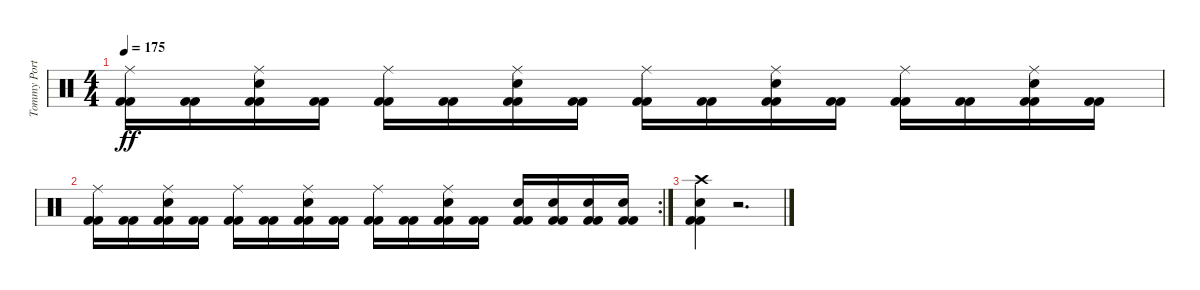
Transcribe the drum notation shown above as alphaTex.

\track ("Tommy Portimo" "Tommy Port") {instrument percussion}
\staff {score}
\articulation defaults
\ts (4 4)
\tempo 175
\clef neutral
\ks c
("Kick (hit) 2" "Kick (hit) 2" "Ride (middle)").16{dy ff} ("Kick (hit) 2" "Kick (hit) 2").16 ("Kick (hit) 2" "Kick (hit) 2" "Ride (middle)" "Electric Snare (hit)").16 ("Kick (hit) 2" "Kick (hit) 2").16 ("Kick (hit) 2" "Kick (hit) 2" "Ride (middle)").16 ("Kick (hit) 2" "Kick (hit) 2").16 ("Kick (hit) 2" "Kick (hit) 2" "Ride (middle)" "Electric Snare (hit)").16 ("Kick (hit) 2" "Kick (hit) 2").16 ("Kick (hit) 2" "Kick (hit) 2" "Ride (middle)").16 ("Kick (hit) 2" "Kick (hit) 2").16 ("Kick (hit) 2" "Kick (hit) 2" "Ride (middle)" "Electric Snare (hit)").16 ("Kick (hit) 2" "Kick (hit) 2").16 ("Kick (hit) 2" "Kick (hit) 2" "Ride (middle)").16 ("Kick (hit) 2" "Kick (hit) 2").16 ("Kick (hit) 2" "Kick (hit) 2" "Ride (middle)" "Electric Snare (hit)").16 ("Kick (hit) 2" "Kick (hit) 2").16 |
\rc 2
("Kick (hit) 2" "Kick (hit) 2" "Ride (middle)").16 ("Kick (hit) 2" "Kick (hit) 2").16 ("Kick (hit) 2" "Kick (hit) 2" "Ride (middle)" "Electric Snare (hit)").16 ("Kick (hit) 2" "Kick (hit) 2").16 ("Kick (hit) 2" "Kick (hit) 2" "Ride (middle)").16 ("Kick (hit) 2" "Kick (hit) 2").16 ("Kick (hit) 2" "Kick (hit) 2" "Ride (middle)" "Electric Snare (hit)").16 ("Kick (hit) 2" "Kick (hit) 2").16 ("Kick (hit) 2" "Kick (hit) 2" "Ride (middle)").16 ("Kick (hit) 2" "Kick (hit) 2").16 ("Kick (hit) 2" "Kick (hit) 2" "Ride (middle)" "Electric Snare (hit)").16 ("Kick (hit) 2" "Kick (hit) 2").16 ("Kick (hit) 2" "Kick (hit) 2" "Electric Snare (hit)").16 ("Kick (hit) 2" "Kick (hit) 2" "Electric Snare (hit)").16 ("Kick (hit) 2" "Kick (hit) 2" "Electric Snare (hit)").16 ("Kick (hit) 2" "Kick (hit) 2" "Electric Snare (hit)").16 |
("Kick (hit) 2" "Kick (hit) 2" "Electric Snare (hit)" "Crash high (hit)").4 r.2{d}
